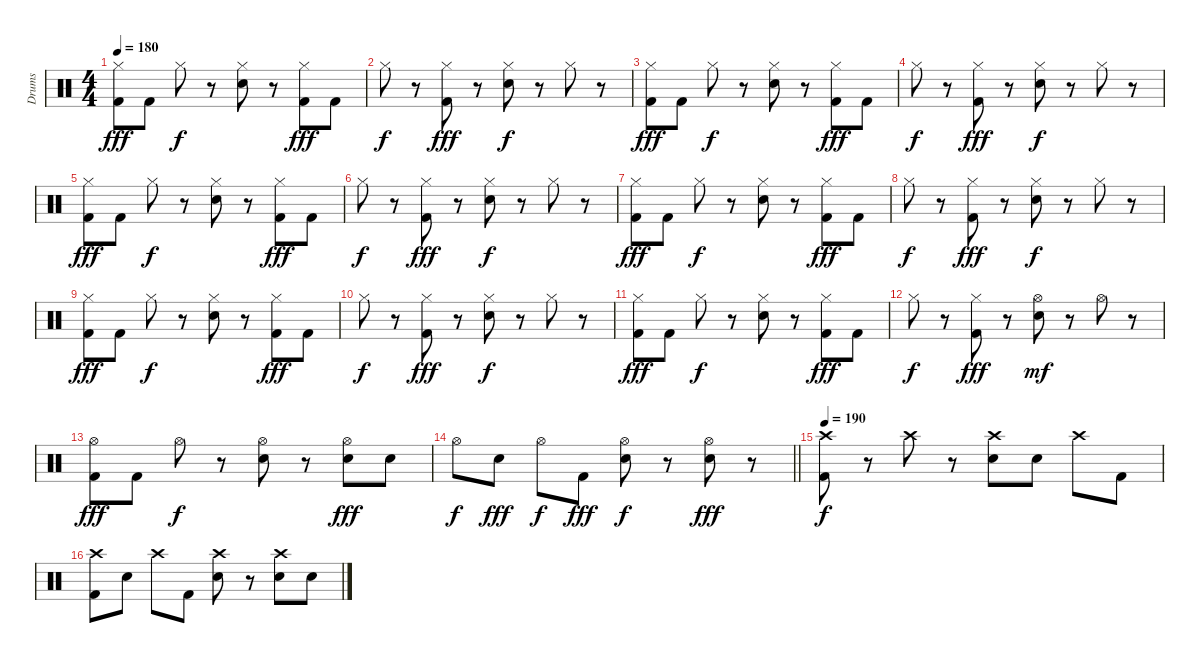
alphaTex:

\track ("Drums" "Drums") {instrument percussion}
\staff {score}
\articulation defaults
\ts (4 4)
\tempo 180
\clef neutral
\ks c
("Hi-Hat (closed)" "Kick (hit) 2").8{dy fff} "Kick (hit) 2".8 "Hi-Hat (closed)".8{dy f} r.8 ("Hi-Hat (closed)" "Electric Snare (hit)").8 r.8 ("Hi-Hat (closed)" "Kick (hit) 2").8{dy fff} "Kick (hit) 2".8 |
"Hi-Hat (closed)".8{dy f} r.8 ("Hi-Hat (closed)" "Kick (hit) 2").8{dy fff} r.8 ("Hi-Hat (closed)" "Electric Snare (hit)").8{dy f} r.8 "Hi-Hat (closed)".8 r.8 |
("Hi-Hat (closed)" "Kick (hit) 2").8{dy fff} "Kick (hit) 2".8 "Hi-Hat (closed)".8{dy f} r.8 ("Hi-Hat (closed)" "Electric Snare (hit)").8 r.8 ("Hi-Hat (closed)" "Kick (hit) 2").8{dy fff} "Kick (hit) 2".8 |
"Hi-Hat (closed)".8{dy f} r.8 ("Hi-Hat (closed)" "Kick (hit) 2").8{dy fff} r.8 ("Hi-Hat (closed)" "Electric Snare (hit)").8{dy f} r.8 "Hi-Hat (closed)".8 r.8 |
("Hi-Hat (closed)" "Kick (hit) 2").8{dy fff} "Kick (hit) 2".8 "Hi-Hat (closed)".8{dy f} r.8 ("Hi-Hat (closed)" "Electric Snare (hit)").8 r.8 ("Hi-Hat (closed)" "Kick (hit) 2").8{dy fff} "Kick (hit) 2".8 |
"Hi-Hat (closed)".8{dy f} r.8 ("Hi-Hat (closed)" "Kick (hit) 2").8{dy fff} r.8 ("Hi-Hat (closed)" "Electric Snare (hit)").8{dy f} r.8 "Hi-Hat (closed)".8 r.8 |
("Hi-Hat (closed)" "Kick (hit) 2").8{dy fff} "Kick (hit) 2".8 "Hi-Hat (closed)".8{dy f} r.8 ("Hi-Hat (closed)" "Electric Snare (hit)").8 r.8 ("Hi-Hat (closed)" "Kick (hit) 2").8{dy fff} "Kick (hit) 2".8 |
"Hi-Hat (closed)".8{dy f} r.8 ("Hi-Hat (closed)" "Kick (hit) 2").8{dy fff} r.8 ("Hi-Hat (closed)" "Electric Snare (hit)").8{dy f} r.8 "Hi-Hat (closed)".8 r.8 |
("Hi-Hat (closed)" "Kick (hit) 2").8{dy fff} "Kick (hit) 2".8 "Hi-Hat (closed)".8{dy f} r.8 ("Hi-Hat (closed)" "Electric Snare (hit)").8 r.8 ("Hi-Hat (closed)" "Kick (hit) 2").8{dy fff} "Kick (hit) 2".8 |
"Hi-Hat (closed)".8{dy f} r.8 ("Hi-Hat (closed)" "Kick (hit) 2").8{dy fff} r.8 ("Hi-Hat (closed)" "Electric Snare (hit)").8{dy f} r.8 "Hi-Hat (closed)".8 r.8 |
("Hi-Hat (closed)" "Kick (hit) 2").8{dy fff} "Kick (hit) 2".8 "Hi-Hat (closed)".8{dy f} r.8 ("Hi-Hat (closed)" "Electric Snare (hit)").8 r.8 ("Hi-Hat (closed)" "Kick (hit) 2").8{dy fff} "Kick (hit) 2".8 |
"Hi-Hat (closed)".8{dy f} r.8 ("Hi-Hat (closed)" "Kick (hit) 2").8{dy fff} r.8 ("Hi-Hat (open)" "Electric Snare (hit)").8{dy mf} r.8 "Hi-Hat (open)".8 r.8 |
("Hi-Hat (open)" "Kick (hit) 2").8{dy fff} "Kick (hit) 2".8 "Hi-Hat (open)".8{dy f} r.8 ("Hi-Hat (open)" "Electric Snare (hit)").8 r.8 ("Hi-Hat (open)" "Electric Snare (hit)").8{dy fff} "Electric Snare (hit)".8 |
\barLineRight lightlight "Hi-Hat (open)".8{dy f} "Electric Snare (hit)".8{dy fff} "Hi-Hat (open)".8{dy f} "Kick (hit) 2".8{dy fff}
("Hi-Hat (open)" "Electric Snare (hit)").8{dy f} r.8 ("Hi-Hat (open)" "Electric Snare (hit)").8{dy fff} r.8 |
\section ("" "")
\tempo 190
("Crash high (hit)" "Kick (hit) 2").8{dy f} r.8 "Crash high (hit)".8 r.8 ("Crash high (hit)" "Electric Snare (hit)").8 "Electric Snare (hit)".8 "Crash high (hit)".8 "Kick (hit) 2".8 |
("Crash high (hit)" "Kick (hit) 2").8 "Electric Snare (hit)".8 "Crash high (hit)".8 "Kick (hit) 2".8 ("Crash high (hit)" "Electric Snare (hit)").8 r.8 ("Crash high (hit)" "Electric Snare (hit)").8 "Electric Snare (hit)".8
